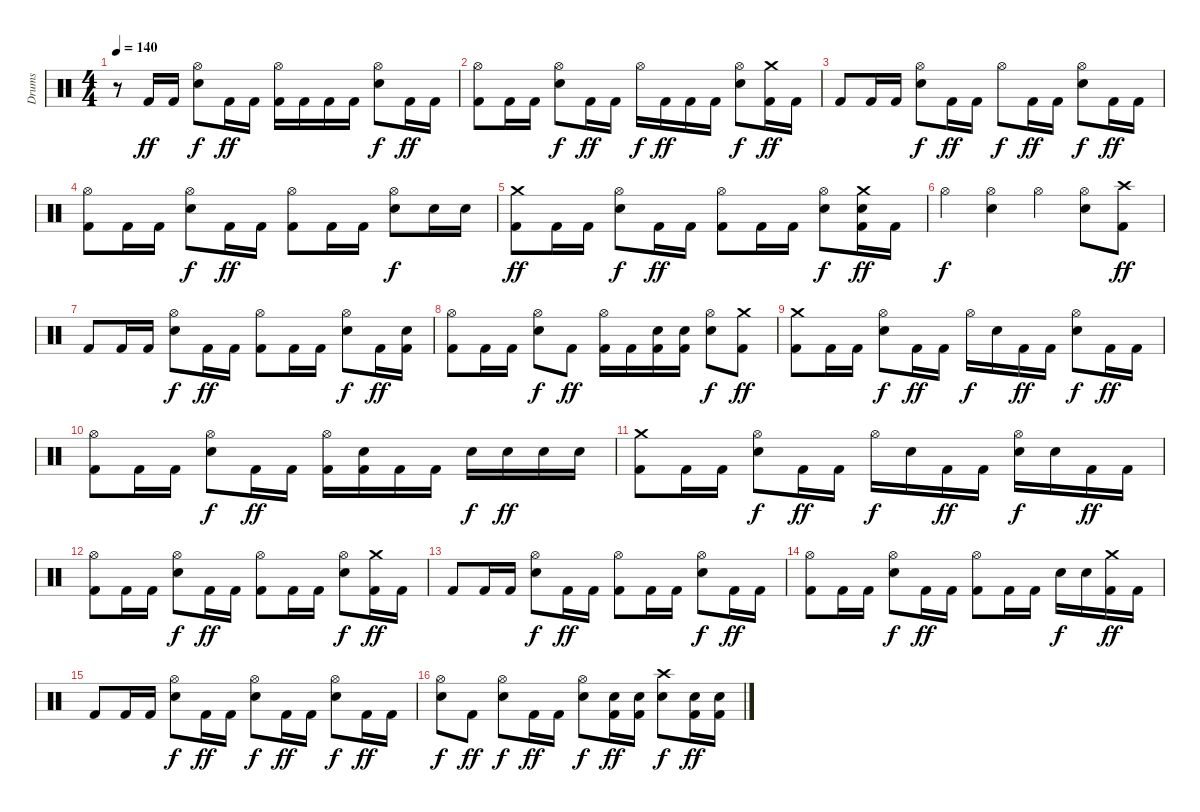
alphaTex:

\track ("Drums" "Drums") {instrument percussion}
\staff {score}
\articulation defaults
\ts (4 4)
\tempo 140
\clef neutral
\ks c
r.8{dy f} "Kick (hit) 2".16{dy ff} "Kick (hit) 2".16 ("Hi-Hat (open)" "Snare (hit) 2").8{dy f} "Kick (hit) 2".16{dy ff} "Kick (hit) 2".16 ("Hi-Hat (open)" "Kick (hit) 2").16 "Kick (hit) 2".16 "Kick (hit) 2".16 "Kick (hit) 2".16 ("Hi-Hat (open)" "Snare (hit) 2").8{dy f} "Kick (hit) 2".16{dy ff} "Kick (hit) 2".16 |
("Hi-Hat (open)" "Kick (hit) 2").8 "Kick (hit) 2".16 "Kick (hit) 2".16 ("Hi-Hat (open)" "Snare (hit) 2").8{dy f} "Kick (hit) 2".16{dy ff} "Kick (hit) 2".16 "Hi-Hat (open)".16{dy f} "Kick (hit) 2".16{dy ff} "Kick (hit) 2".16 "Kick (hit) 2".16 ("Hi-Hat (open)" "Snare (hit) 2").8{dy f} ("Crash medium (hit)" "Kick (hit) 2").16{dy ff} "Kick (hit) 2".16 |
"Kick (hit) 2".8 "Kick (hit) 2".16 "Kick (hit) 2".16 ("Hi-Hat (open)" "Snare (hit) 2").8{dy f} "Kick (hit) 2".16{dy ff} "Kick (hit) 2".16 "Hi-Hat (open)".8{dy f} "Kick (hit) 2".16{dy ff} "Kick (hit) 2".16 ("Hi-Hat (open)" "Snare (hit) 2").8{dy f} "Kick (hit) 2".16{dy ff} "Kick (hit) 2".16 |
("Hi-Hat (open)" "Kick (hit) 2").8 "Kick (hit) 2".16 "Kick (hit) 2".16 ("Hi-Hat (open)" "Snare (hit) 2").8{dy f} "Kick (hit) 2".16{dy ff} "Kick (hit) 2".16 ("Hi-Hat (open)" "Kick (hit) 2").8 "Kick (hit) 2".16 "Kick (hit) 2".16 ("Hi-Hat (open)" "Snare (hit) 2").8{dy f} "Snare (hit) 2".16 "Snare (hit) 2".16 |
("Crash medium (hit)" "Kick (hit) 2").8{dy ff} "Kick (hit) 2".16 "Kick (hit) 2".16 ("Hi-Hat (open)" "Snare (hit) 2").8{dy f} "Kick (hit) 2".16{dy ff} "Kick (hit) 2".16 ("Hi-Hat (open)" "Kick (hit) 2").8 "Kick (hit) 2".16 "Kick (hit) 2".16 ("Hi-Hat (open)" "Snare (hit) 2").8{dy f} ("Crash medium (hit)" "Snare (hit) 2" "Kick (hit) 2").16{dy ff} "Kick (hit) 2".16 |
"Hi-Hat (open)".4{dy f} ("Hi-Hat (open)" "Snare (hit) 2").4 "Hi-Hat (open)".4 ("Hi-Hat (open)" "Snare (hit) 2").8 ("Crash high (hit)" "Kick (hit) 2").8{dy ff} |
"Kick (hit) 2".8 "Kick (hit) 2".16 "Kick (hit) 2".16 ("Hi-Hat (open)" "Snare (hit) 2").8{dy f} "Kick (hit) 2".16{dy ff} "Kick (hit) 2".16 ("Hi-Hat (open)" "Kick (hit) 2").8 "Kick (hit) 2".16 "Kick (hit) 2".16 ("Hi-Hat (open)" "Snare (hit) 2").8{dy f} "Kick (hit) 2".16{dy ff} ("Snare (hit) 2" "Kick (hit) 2").16 |
("Hi-Hat (open)" "Kick (hit) 2").8 "Kick (hit) 2".16 "Kick (hit) 2".16 ("Hi-Hat (open)" "Snare (hit) 2").8{dy f} "Kick (hit) 2".8{dy ff} ("Hi-Hat (open)" "Kick (hit) 2").16 "Kick (hit) 2".16 ("Snare (hit) 2" "Kick (hit) 2").16 ("Snare (hit) 2" "Kick (hit) 2").16 ("Hi-Hat (open)" "Snare (hit) 2").8{dy f} ("Crash medium (hit)" "Kick (hit) 2").8{dy ff} |
("Crash medium (hit)" "Kick (hit) 2").8 "Kick (hit) 2".16 "Kick (hit) 2".16 ("Hi-Hat (open)" "Snare (hit) 2").8{dy f} "Kick (hit) 2".16{dy ff} "Kick (hit) 2".16 "Hi-Hat (open)".16{dy f} "Snare (hit) 2".16 "Kick (hit) 2".16{dy ff} "Kick (hit) 2".16 ("Hi-Hat (open)" "Snare (hit) 2").8{dy f} "Kick (hit) 2".16{dy ff} "Kick (hit) 2".16 |
("Hi-Hat (open)" "Kick (hit) 2").8 "Kick (hit) 2".16 "Kick (hit) 2".16 ("Hi-Hat (open)" "Snare (hit) 2").8{dy f} "Kick (hit) 2".16{dy ff} "Kick (hit) 2".16 ("Hi-Hat (open)" "Kick (hit) 2").16 ("Snare (hit) 2" "Kick (hit) 2").16 "Kick (hit) 2".16 "Kick (hit) 2".16 "Snare (hit) 2".16{dy f} "Snare (hit) 2".16{dy ff} "Snare (hit) 2".16 "Snare (hit) 2".16 |
("Crash medium (hit)" "Kick (hit) 2").8 "Kick (hit) 2".16 "Kick (hit) 2".16 ("Hi-Hat (open)" "Snare (hit) 2").8{dy f} "Kick (hit) 2".16{dy ff} "Kick (hit) 2".16 "Hi-Hat (open)".16{dy f} "Snare (hit) 2".16 "Kick (hit) 2".16{dy ff} "Kick (hit) 2".16 ("Hi-Hat (open)" "Snare (hit) 2").16{dy f} "Snare (hit) 2".16 "Kick (hit) 2".16{dy ff} "Kick (hit) 2".16 |
("Hi-Hat (open)" "Kick (hit) 2").8 "Kick (hit) 2".16 "Kick (hit) 2".16 ("Hi-Hat (open)" "Snare (hit) 2").8{dy f} "Kick (hit) 2".16{dy ff} "Kick (hit) 2".16 ("Hi-Hat (open)" "Kick (hit) 2").8 "Kick (hit) 2".16 "Kick (hit) 2".16 ("Hi-Hat (open)" "Snare (hit) 2").8{dy f} ("Crash medium (hit)" "Kick (hit) 2").16{dy ff} "Kick (hit) 2".16 |
"Kick (hit) 2".8 "Kick (hit) 2".16 "Kick (hit) 2".16 ("Hi-Hat (open)" "Snare (hit) 2").8{dy f} "Kick (hit) 2".16{dy ff} "Kick (hit) 2".16 ("Hi-Hat (open)" "Kick (hit) 2").8 "Kick (hit) 2".16 "Kick (hit) 2".16 ("Hi-Hat (open)" "Snare (hit) 2").8{dy f} "Kick (hit) 2".16{dy ff} "Kick (hit) 2".16 |
("Hi-Hat (open)" "Kick (hit) 2").8 "Kick (hit) 2".16 "Kick (hit) 2".16 ("Hi-Hat (open)" "Snare (hit) 2").8{dy f} "Kick (hit) 2".16{dy ff} "Kick (hit) 2".16 ("Hi-Hat (open)" "Kick (hit) 2").8 "Kick (hit) 2".16 "Kick (hit) 2".16 "Snare (hit) 2".16{dy f} "Snare (hit) 2".16 ("Crash medium (hit)" "Kick (hit) 2").16{dy ff} "Kick (hit) 2".16 |
"Kick (hit) 2".8 "Kick (hit) 2".16 "Kick (hit) 2".16 ("Hi-Hat (open)" "Snare (hit) 2").8{dy f} "Kick (hit) 2".16{dy ff} "Kick (hit) 2".16 ("Hi-Hat (open)" "Snare (hit) 2").8{dy f} "Kick (hit) 2".16{dy ff} "Kick (hit) 2".16 ("Hi-Hat (open)" "Snare (hit) 2").8{dy f} "Kick (hit) 2".16{dy ff} "Kick (hit) 2".16 |
("Hi-Hat (open)" "Snare (hit) 2").8{dy f} "Kick (hit) 2".8{dy ff} ("Hi-Hat (open)" "Snare (hit) 2").8{dy f} "Kick (hit) 2".16{dy ff} "Kick (hit) 2".16 ("Hi-Hat (open)" "Snare (hit) 2").8{dy f} ("Snare (hit) 2" "Kick (hit) 2").16{dy ff} ("Snare (hit) 2" "Kick (hit) 2").16 ("Crash high (hit)" "Snare (hit) 2").8{dy f} ("Snare (hit) 2" "Kick (hit) 2").16{dy ff} ("Snare (hit) 2" "Kick (hit) 2").16
